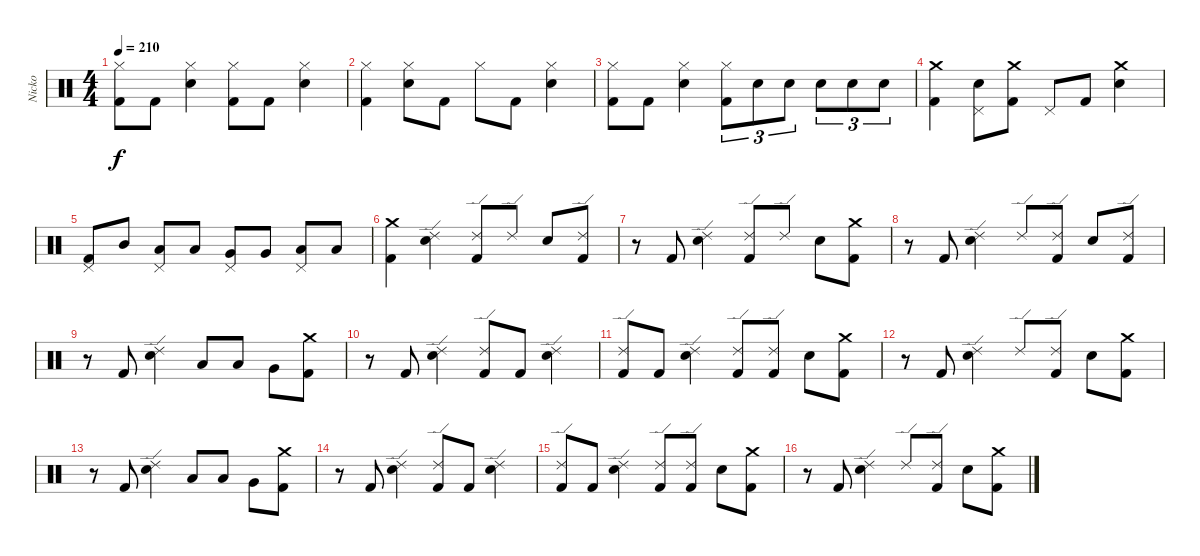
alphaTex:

\track ("Nicko" "Nicko") {instrument percussion}
\staff {score}
\articulation defaults
\ts (4 4)
\tempo 210
\clef neutral
\ks c
("Hi-Hat (closed)" "Kick (hit) 2").8{dy f} "Kick (hit) 2".8 ("Hi-Hat (closed)" "Electric Snare (hit)").4 ("Hi-Hat (closed)" "Kick (hit) 2").8 "Kick (hit) 2".8 ("Hi-Hat (closed)" "Electric Snare (hit)").4 |
("Hi-Hat (closed)" "Kick (hit) 2").4 ("Hi-Hat (closed)" "Electric Snare (hit)").8 "Kick (hit) 2".8 "Hi-Hat (closed)".8 "Kick (hit) 2".8 ("Hi-Hat (closed)" "Electric Snare (hit)").4 |
("Hi-Hat (closed)" "Kick (hit) 2").8 "Kick (hit) 2".8 ("Hi-Hat (closed)" "Electric Snare (hit)").4 ("Hi-Hat (closed)" "Kick (hit) 2").8{tu (3 2)} "Electric Snare (hit)".8{tu (3 2)} "Electric Snare (hit)".8{tu (3 2)} "Electric Snare (hit)".8{tu (3 2)} "Electric Snare (hit)".8{tu (3 2)} "Electric Snare (hit)".8{tu (3 2)} |
("Crash medium (hit)" "Kick (hit) 2").4 ("Pedal Hi-Hat (hit)" "Electric Snare (hit)").8 ("Crash medium (hit)" "Kick (hit) 2").8 "Pedal Hi-Hat (hit)".8 "Kick (hit) 2".8 ("Crash medium (hit)" "Electric Snare (hit)").4 |
("Pedal Hi-Hat (hit)" "Kick (hit) 2").8 "Mid Tom (hit)".8 ("Pedal Hi-Hat (hit)" "Low Tom (hit)").8 "Low Tom (hit)".8 ("Pedal Hi-Hat (hit)" "Very Low Tom (hit)").8 "Very Low Tom (hit)".8 ("Pedal Hi-Hat (hit)" "Low Floor Tom (hit)").8 "Low Floor Tom (hit)".8 |
("Crash medium (hit)" "Kick (hit) 2").4 ("Ride (edge) 2" "Electric Snare (hit)").4 ("Ride (edge) 2" "Kick (hit) 2").8 "Ride (edge) 2".8 "Electric Snare (hit)".8 ("Ride (edge) 2" "Kick (hit) 2").8 |
r.8 "Kick (hit) 2".8 ("Ride (edge) 2" "Electric Snare (hit)").4 ("Ride (edge) 2" "Kick (hit) 2").8 "Ride (edge) 2".8 "Electric Snare (hit)".8 ("Crash medium (hit)" "Kick (hit) 2").8 |
r.8 "Kick (hit) 2".8 ("Ride (edge) 2" "Electric Snare (hit)").4 "Ride (edge) 2".8 ("Ride (edge) 2" "Kick (hit) 2").8 "Electric Snare (hit)".8 ("Ride (edge) 2" "Kick (hit) 2").8 |
r.8 "Kick (hit) 2".8 ("Ride (edge) 2" "Electric Snare (hit)").4 "Low Tom (hit)".8 "Low Tom (hit)".8 "Very Low Tom (hit)".8 ("Crash medium (hit)" "Kick (hit) 2").8 |
r.8 "Kick (hit) 2".8 ("Ride (edge) 2" "Electric Snare (hit)").4 ("Ride (edge) 2" "Kick (hit) 2").8 "Kick (hit) 2".8 ("Ride (edge) 2" "Electric Snare (hit)").4 |
("Ride (edge) 2" "Kick (hit) 2").8 "Kick (hit) 2".8 ("Ride (edge) 2" "Electric Snare (hit)").4 ("Ride (edge) 2" "Kick (hit) 2").8 ("Ride (edge) 2" "Kick (hit) 2").8 "Electric Snare (hit)".8 ("Crash medium (hit)" "Kick (hit) 2").8 |
r.8 "Kick (hit) 2".8 ("Ride (edge) 2" "Electric Snare (hit)").4 "Ride (edge) 2".8 ("Ride (edge) 2" "Kick (hit) 2").8 "Electric Snare (hit)".8 ("Crash medium (hit)" "Kick (hit) 2").8 |
r.8 "Kick (hit) 2".8 ("Ride (edge) 2" "Electric Snare (hit)").4 "Low Tom (hit)".8 "Low Tom (hit)".8 "Very Low Tom (hit)".8 ("Crash medium (hit)" "Kick (hit) 2").8 |
r.8 "Kick (hit) 2".8 ("Ride (edge) 2" "Electric Snare (hit)").4 ("Ride (edge) 2" "Kick (hit) 2").8 "Kick (hit) 2".8 ("Ride (edge) 2" "Electric Snare (hit)").4 |
("Ride (edge) 2" "Kick (hit) 2").8 "Kick (hit) 2".8 ("Ride (edge) 2" "Electric Snare (hit)").4 ("Ride (edge) 2" "Kick (hit) 2").8 ("Ride (edge) 2" "Kick (hit) 2").8 "Electric Snare (hit)".8 ("Crash medium (hit)" "Kick (hit) 2").8 |
r.8 "Kick (hit) 2".8 ("Ride (edge) 2" "Electric Snare (hit)").4 "Ride (edge) 2".8 ("Ride (edge) 2" "Kick (hit) 2").8 "Electric Snare (hit)".8 ("Crash medium (hit)" "Kick (hit) 2").8
